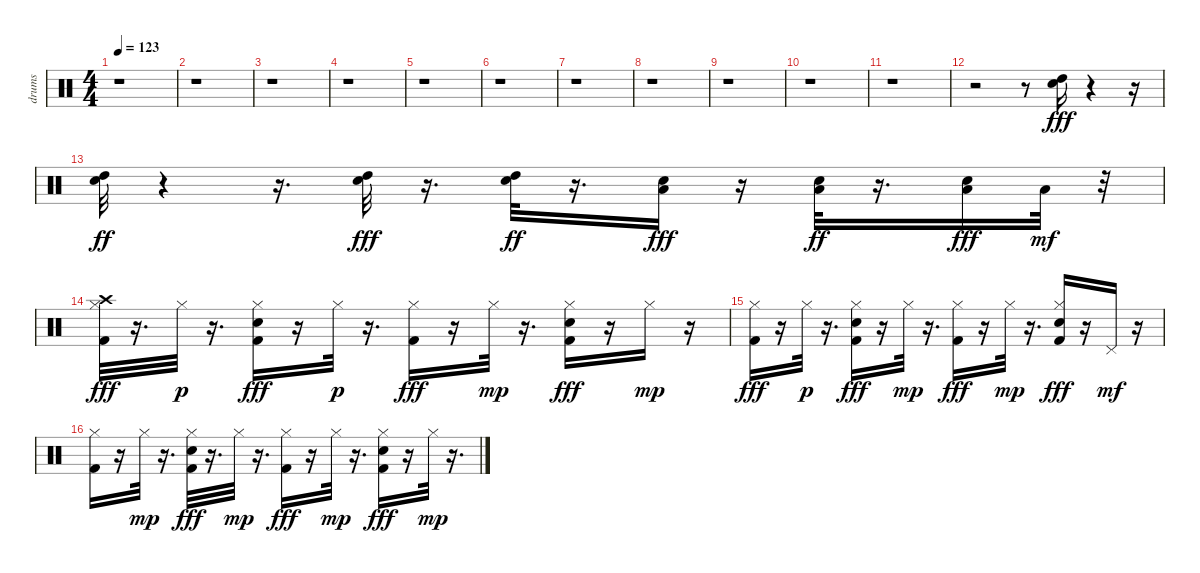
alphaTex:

\track ("drums   " "drums   ") {instrument percussion}
\staff {score}
\articulation defaults
\ts (4 4)
\tempo 123
\clef neutral
\ks c
r.1{dy p} |
r.1 |
r.1 |
r.1 |
r.1 |
r.1 |
r.1 |
r.1 |
r.1 |
r.1 |
r.1 |
r.2 r.8 ("Snare (hit) 2" "High Tom (hit)").16{dy fff} r.4 r.16 |
("Snare (hit) 2" "High Tom (hit)").32{dy ff} r.4 r.16{d} ("Snare (hit) 2" "High Tom (hit)").32{dy fff} r.16{d} ("Snare (hit) 2" "High Tom (hit)").32{dy ff} r.16{d} ("Snare (hit) 2" "Low Tom (hit)").16{dy fff} r.16 ("Snare (hit) 2" "Low Tom (hit)").32{dy ff} r.16{d} ("Snare (hit) 2" "Low Floor Tom (hit)").16{dy fff} "Low Floor Tom (hit)".32{dy mf} r.32 |
("Hi-Hat (closed)" "Kick (hit) 2" "Crash high (hit)").32{dy fff} r.16{d} "Hi-Hat (closed)".32{dy p} r.16{d} ("Snare (hit) 2" "Kick (hit) 2" "Hi-Hat (closed)").16{dy fff} r.16 "Hi-Hat (closed)".32{dy p} r.16{d} ("Kick (hit) 2" "Hi-Hat (closed)").16{dy fff} r.16 "Hi-Hat (closed)".32{dy mp} r.16{d} ("Kick (hit) 2" "Hi-Hat (closed)" "Snare (hit) 2").16{dy fff} r.16 "Hi-Hat (closed)".16{dy mp} r.16 |
("Kick (hit) 2" "Hi-Hat (closed)").16{dy fff} r.16 "Hi-Hat (closed)".32{dy p} r.16{d} ("Kick (hit) 2" "Hi-Hat (closed)" "Snare (hit) 2").16{dy fff} r.16 "Hi-Hat (closed)".32{dy mp} r.16{d} ("Hi-Hat (closed)" "Kick (hit) 2").16{dy fff} r.16 "Hi-Hat (closed)".32{dy mp} r.16{d} ("Kick (hit) 2" "Hi-Hat (closed)" "Snare (hit) 2").16{dy fff} r.16 "Pedal Hi-Hat (hit)".16{dy mf} r.16 |
("Kick (hit) 2" "Hi-Hat (closed)").16 r.16 "Hi-Hat (closed)".32{dy mp} r.16{d} ("Kick (hit) 2" "Hi-Hat (closed)" "Snare (hit) 2").32{dy fff} r.16{d} "Hi-Hat (closed)".32{dy mp} r.16{d} ("Hi-Hat (closed)" "Kick (hit) 2").16{dy fff} r.16 "Hi-Hat (closed)".32{dy mp} r.16{d} ("Kick (hit) 2" "Hi-Hat (closed)" "Snare (hit) 2").16{dy fff} r.16 "Hi-Hat (closed)".32{dy mp} r.16{d}
